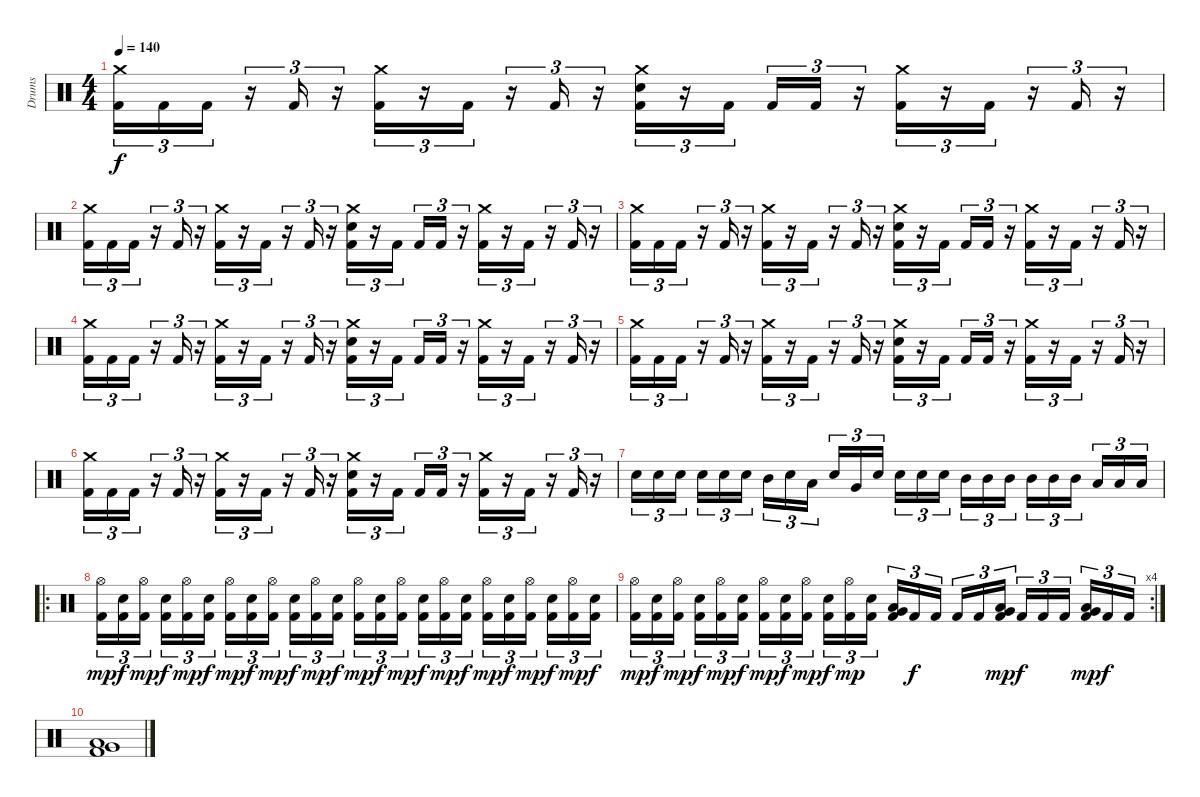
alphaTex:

\track ("Drums" "Drums") {instrument percussion}
\staff {score}
\articulation defaults
\ts (4 4)
\tempo 140
\clef neutral
\ks c
("Crash medium (hit)" "Kick (hit) 2").16{tu (3 2) dy f} "Kick (hit) 2".16{tu (3 2)} "Kick (hit) 2".16{tu (3 2)} r.16{tu (3 2)} "Kick (hit) 2".16{tu (3 2)} r.16{tu (3 2)} ("Crash medium (hit)" "Kick (hit) 2").16{tu (3 2)} r.16{tu (3 2)} "Kick (hit) 2".16{tu (3 2)} r.16{tu (3 2)} "Kick (hit) 2".16{tu (3 2)} r.16{tu (3 2)} ("Crash medium (hit)" "Electric Snare (hit)" "Kick (hit) 2").16{tu (3 2)} r.16{tu (3 2)} "Kick (hit) 2".16{tu (3 2) beam splitsecondary} "Kick (hit) 2".16{tu (3 2)} "Kick (hit) 2".16{tu (3 2)} r.16{tu (3 2)} ("Crash medium (hit)" "Kick (hit) 2").16{tu (3 2)} r.16{tu (3 2)} "Kick (hit) 2".16{tu (3 2)} r.16{tu (3 2)} "Kick (hit) 2".16{tu (3 2)} r.16{tu (3 2)} |
("Crash medium (hit)" "Kick (hit) 2").16{tu (3 2)} "Kick (hit) 2".16{tu (3 2)} "Kick (hit) 2".16{tu (3 2)} r.16{tu (3 2)} "Kick (hit) 2".16{tu (3 2)} r.16{tu (3 2)} ("Crash medium (hit)" "Kick (hit) 2").16{tu (3 2)} r.16{tu (3 2)} "Kick (hit) 2".16{tu (3 2)} r.16{tu (3 2)} "Kick (hit) 2".16{tu (3 2)} r.16{tu (3 2)} ("Crash medium (hit)" "Electric Snare (hit)" "Kick (hit) 2").16{tu (3 2)} r.16{tu (3 2)} "Kick (hit) 2".16{tu (3 2) beam splitsecondary} "Kick (hit) 2".16{tu (3 2)} "Kick (hit) 2".16{tu (3 2)} r.16{tu (3 2)} ("Crash medium (hit)" "Kick (hit) 2").16{tu (3 2)} r.16{tu (3 2)} "Kick (hit) 2".16{tu (3 2)} r.16{tu (3 2)} "Kick (hit) 2".16{tu (3 2)} r.16{tu (3 2)} |
("Crash medium (hit)" "Kick (hit) 2").16{tu (3 2)} "Kick (hit) 2".16{tu (3 2)} "Kick (hit) 2".16{tu (3 2)} r.16{tu (3 2)} "Kick (hit) 2".16{tu (3 2)} r.16{tu (3 2)} ("Crash medium (hit)" "Kick (hit) 2").16{tu (3 2)} r.16{tu (3 2)} "Kick (hit) 2".16{tu (3 2)} r.16{tu (3 2)} "Kick (hit) 2".16{tu (3 2)} r.16{tu (3 2)} ("Crash medium (hit)" "Electric Snare (hit)" "Kick (hit) 2").16{tu (3 2)} r.16{tu (3 2)} "Kick (hit) 2".16{tu (3 2) beam splitsecondary} "Kick (hit) 2".16{tu (3 2)} "Kick (hit) 2".16{tu (3 2)} r.16{tu (3 2)} ("Crash medium (hit)" "Kick (hit) 2").16{tu (3 2)} r.16{tu (3 2)} "Kick (hit) 2".16{tu (3 2)} r.16{tu (3 2)} "Kick (hit) 2".16{tu (3 2)} r.16{tu (3 2)} |
("Crash medium (hit)" "Kick (hit) 2").16{tu (3 2)} "Kick (hit) 2".16{tu (3 2)} "Kick (hit) 2".16{tu (3 2)} r.16{tu (3 2)} "Kick (hit) 2".16{tu (3 2)} r.16{tu (3 2)} ("Crash medium (hit)" "Kick (hit) 2").16{tu (3 2)} r.16{tu (3 2)} "Kick (hit) 2".16{tu (3 2)} r.16{tu (3 2)} "Kick (hit) 2".16{tu (3 2)} r.16{tu (3 2)} ("Crash medium (hit)" "Electric Snare (hit)" "Kick (hit) 2").16{tu (3 2)} r.16{tu (3 2)} "Kick (hit) 2".16{tu (3 2) beam splitsecondary} "Kick (hit) 2".16{tu (3 2)} "Kick (hit) 2".16{tu (3 2)} r.16{tu (3 2)} ("Crash medium (hit)" "Kick (hit) 2").16{tu (3 2)} r.16{tu (3 2)} "Kick (hit) 2".16{tu (3 2)} r.16{tu (3 2)} "Kick (hit) 2".16{tu (3 2)} r.16{tu (3 2)} |
("Crash medium (hit)" "Kick (hit) 2").16{tu (3 2)} "Kick (hit) 2".16{tu (3 2)} "Kick (hit) 2".16{tu (3 2)} r.16{tu (3 2)} "Kick (hit) 2".16{tu (3 2)} r.16{tu (3 2)} ("Crash medium (hit)" "Kick (hit) 2").16{tu (3 2)} r.16{tu (3 2)} "Kick (hit) 2".16{tu (3 2)} r.16{tu (3 2)} "Kick (hit) 2".16{tu (3 2)} r.16{tu (3 2)} ("Crash medium (hit)" "Electric Snare (hit)" "Kick (hit) 2").16{tu (3 2)} r.16{tu (3 2)} "Kick (hit) 2".16{tu (3 2) beam splitsecondary} "Kick (hit) 2".16{tu (3 2)} "Kick (hit) 2".16{tu (3 2)} r.16{tu (3 2)} ("Crash medium (hit)" "Kick (hit) 2").16{tu (3 2)} r.16{tu (3 2)} "Kick (hit) 2".16{tu (3 2)} r.16{tu (3 2)} "Kick (hit) 2".16{tu (3 2)} r.16{tu (3 2)} |
("Crash medium (hit)" "Kick (hit) 2").16{tu (3 2)} "Kick (hit) 2".16{tu (3 2)} "Kick (hit) 2".16{tu (3 2)} r.16{tu (3 2)} "Kick (hit) 2".16{tu (3 2)} r.16{tu (3 2)} ("Crash medium (hit)" "Kick (hit) 2").16{tu (3 2)} r.16{tu (3 2)} "Kick (hit) 2".16{tu (3 2)} r.16{tu (3 2)} "Kick (hit) 2".16{tu (3 2)} r.16{tu (3 2)} ("Crash medium (hit)" "Electric Snare (hit)" "Kick (hit) 2").16{tu (3 2)} r.16{tu (3 2)} "Kick (hit) 2".16{tu (3 2) beam splitsecondary} "Kick (hit) 2".16{tu (3 2)} "Kick (hit) 2".16{tu (3 2)} r.16{tu (3 2)} ("Crash medium (hit)" "Kick (hit) 2").16{tu (3 2)} r.16{tu (3 2)} "Kick (hit) 2".16{tu (3 2)} r.16{tu (3 2)} "Kick (hit) 2".16{tu (3 2)} r.16{tu (3 2)} |
"Electric Snare (hit)".16{tu (3 2)} "Electric Snare (hit)".16{tu (3 2)} "Electric Snare (hit)".16{tu (3 2) beam splitsecondary} "Electric Snare (hit)".16{tu (3 2)} "Electric Snare (hit)".16{tu (3 2)} "Electric Snare (hit)".16{tu (3 2)} "Mid Tom (hit)".16{tu (3 2)} "Electric Snare (hit)".16{tu (3 2)} "Low Tom (hit)".16{tu (3 2) beam splitsecondary} "Electric Snare (hit)".16{tu (3 2)} "Very Low Tom (hit)".16{tu (3 2)} "Electric Snare (hit)".16{tu (3 2)} "Electric Snare (hit)".16{tu (3 2)} "Electric Snare (hit)".16{tu (3 2)} "Electric Snare (hit)".16{tu (3 2) beam splitsecondary} "Mid Tom (hit)".16{tu (3 2)} "Mid Tom (hit)".16{tu (3 2)} "Mid Tom (hit)".16{tu (3 2)} "Mid Tom (hit)".16{tu (3 2)} "Mid Tom (hit)".16{tu (3 2)} "Mid Tom (hit)".16{tu (3 2) beam splitsecondary} "Low Tom (hit)".16{tu (3 2)} "Low Tom (hit)".16{tu (3 2)} "Low Tom (hit)".16{tu (3 2)} |
\ro
("Hi-Hat (open)" "Kick (hit) 2").16{tu (3 2) dy mp} ("Electric Snare (hit)" "Kick (hit) 2").16{tu (3 2) dy f} ("Hi-Hat (open)" "Kick (hit) 2").16{tu (3 2) dy mp beam splitsecondary} ("Electric Snare (hit)" "Kick (hit) 2").16{tu (3 2) dy f} ("Hi-Hat (open)" "Kick (hit) 2").16{tu (3 2) dy mp} ("Electric Snare (hit)" "Kick (hit) 2").16{tu (3 2) dy f} ("Hi-Hat (open)" "Kick (hit) 2").16{tu (3 2) dy mp} ("Electric Snare (hit)" "Kick (hit) 2").16{tu (3 2) dy f} ("Hi-Hat (open)" "Kick (hit) 2").16{tu (3 2) dy mp beam splitsecondary} ("Electric Snare (hit)" "Kick (hit) 2").16{tu (3 2) dy f} ("Hi-Hat (open)" "Kick (hit) 2").16{tu (3 2) dy mp} ("Electric Snare (hit)" "Kick (hit) 2").16{tu (3 2) dy f} ("Hi-Hat (open)" "Kick (hit) 2").16{tu (3 2) dy mp} ("Electric Snare (hit)" "Kick (hit) 2").16{tu (3 2) dy f} ("Hi-Hat (open)" "Kick (hit) 2").16{tu (3 2) dy mp beam splitsecondary} ("Electric Snare (hit)" "Kick (hit) 2").16{tu (3 2) dy f} ("Hi-Hat (open)" "Kick (hit) 2").16{tu (3 2) dy mp} ("Electric Snare (hit)" "Kick (hit) 2").16{tu (3 2) dy f} ("Hi-Hat (open)" "Kick (hit) 2").16{tu (3 2) dy mp} ("Electric Snare (hit)" "Kick (hit) 2").16{tu (3 2) dy f} ("Hi-Hat (open)" "Kick (hit) 2").16{tu (3 2) dy mp beam splitsecondary} ("Electric Snare (hit)" "Kick (hit) 2").16{tu (3 2) dy f} ("Hi-Hat (open)" "Kick (hit) 2").16{tu (3 2) dy mp} ("Electric Snare (hit)" "Kick (hit) 2").16{tu (3 2) dy f} |
\rc 4
("Hi-Hat (open)" "Kick (hit) 2").16{tu (3 2) dy mp} ("Electric Snare (hit)" "Kick (hit) 2").16{tu (3 2) dy f} ("Hi-Hat (open)" "Kick (hit) 2").16{tu (3 2) dy mp beam splitsecondary} ("Electric Snare (hit)" "Kick (hit) 2").16{tu (3 2) dy f} ("Hi-Hat (open)" "Kick (hit) 2").16{tu (3 2) dy mp} ("Electric Snare (hit)" "Kick (hit) 2").16{tu (3 2) dy f} ("Hi-Hat (open)" "Kick (hit) 2").16{tu (3 2) dy mp} ("Electric Snare (hit)" "Kick (hit) 2").16{tu (3 2) dy f} ("Hi-Hat (open)" "Kick (hit) 2").16{tu (3 2) dy mp beam splitsecondary} ("Electric Snare (hit)" "Kick (hit) 2").16{tu (3 2) dy f} ("Hi-Hat (open)" "Kick (hit) 2").16{tu (3 2) dy mp} ("Electric Snare (hit)" "Kick (hit) 2").16{tu (3 2)} ("Low Floor Tom (hit)" "Very Low Tom (hit)" "Kick (hit) 2").16{tu (3 2)} "Kick (hit) 2".16{tu (3 2) dy f} "Kick (hit) 2".16{tu (3 2) beam splitsecondary} "Kick (hit) 2".16{tu (3 2)} "Kick (hit) 2".16{tu (3 2)} ("Low Floor Tom (hit)" "Very Low Tom (hit)" "Kick (hit) 2").16{tu (3 2) dy mp} "Kick (hit) 2".16{tu (3 2) dy f} "Kick (hit) 2".16{tu (3 2)} "Kick (hit) 2".16{tu (3 2) beam splitsecondary} ("Low Floor Tom (hit)" "Very Low Tom (hit)" "Kick (hit) 2").16{tu (3 2) dy mp} "Kick (hit) 2".16{tu (3 2) dy f} "Kick (hit) 2".16{tu (3 2)} |
("Low Floor Tom (hit)" "Very Low Tom (hit)" "Kick (hit) 2").1
